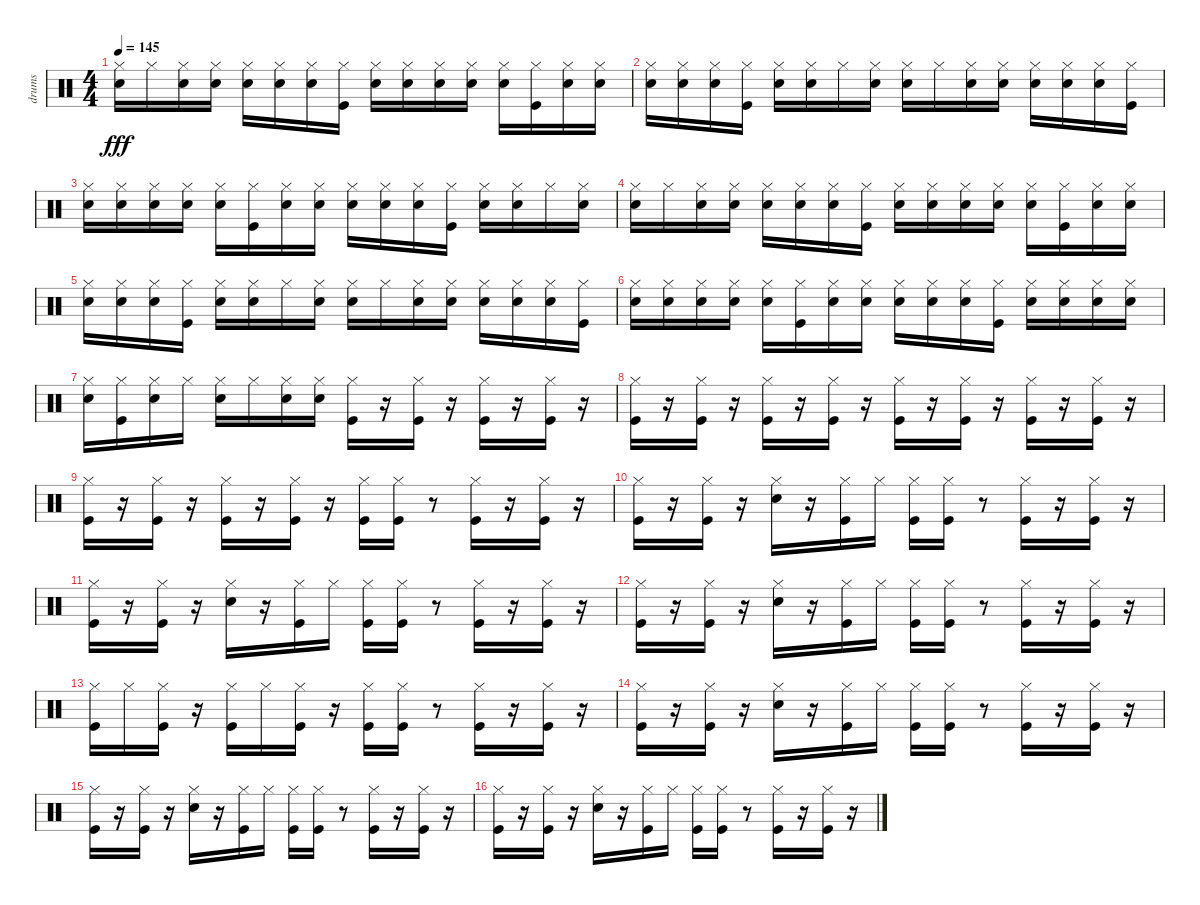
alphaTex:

\track ("drums" "drums") {instrument percussion}
\staff {score}
\articulation defaults
\ts (4 4)
\tempo 145
\clef neutral
\ks c
("Snare (hit) 2" "Hi-Hat (closed)").16{dy fff} "Hi-Hat (closed)".16 ("Snare (hit) 2" "Hi-Hat (closed)").16 ("Snare (hit) 2" "Hi-Hat (closed)").16 ("Snare (hit) 2" "Hi-Hat (closed)").16 ("Snare (hit) 2" "Hi-Hat (closed)").16 ("Snare (hit) 2" "Hi-Hat (closed)").16 ("Kick (hit)" "Hi-Hat (closed)").16 ("Snare (hit) 2" "Hi-Hat (closed)").16 ("Snare (hit) 2" "Hi-Hat (closed)").16 ("Snare (hit) 2" "Hi-Hat (closed)").16 ("Snare (hit) 2" "Hi-Hat (closed)").16 ("Snare (hit) 2" "Hi-Hat (closed)").16 ("Kick (hit)" "Hi-Hat (closed)").16 ("Snare (hit) 2" "Hi-Hat (closed)").16 ("Snare (hit) 2" "Hi-Hat (closed)").16 |
("Snare (hit) 2" "Hi-Hat (closed)").16 ("Snare (hit) 2" "Hi-Hat (closed)").16 ("Snare (hit) 2" "Hi-Hat (closed)").16 ("Kick (hit)" "Hi-Hat (closed)").16 ("Snare (hit) 2" "Hi-Hat (closed)").16 ("Snare (hit) 2" "Hi-Hat (closed)").16 "Hi-Hat (closed)".16 ("Snare (hit) 2" "Hi-Hat (closed)").16 ("Snare (hit) 2" "Hi-Hat (closed)").16 "Hi-Hat (closed)".16 ("Snare (hit) 2" "Hi-Hat (closed)").16 ("Snare (hit) 2" "Hi-Hat (closed)").16 ("Snare (hit) 2" "Hi-Hat (closed)").16 ("Snare (hit) 2" "Hi-Hat (closed)").16 ("Snare (hit) 2" "Hi-Hat (closed)").16 ("Kick (hit)" "Hi-Hat (closed)").16 |
("Snare (hit) 2" "Hi-Hat (closed)").16 ("Snare (hit) 2" "Hi-Hat (closed)").16 ("Snare (hit) 2" "Hi-Hat (closed)").16 ("Snare (hit) 2" "Hi-Hat (closed)").16 ("Snare (hit) 2" "Hi-Hat (closed)").16 ("Kick (hit)" "Hi-Hat (closed)").16 ("Snare (hit) 2" "Hi-Hat (closed)").16 ("Snare (hit) 2" "Hi-Hat (closed)").16 ("Snare (hit) 2" "Hi-Hat (closed)").16 ("Snare (hit) 2" "Hi-Hat (closed)").16 ("Snare (hit) 2" "Hi-Hat (closed)").16 ("Kick (hit)" "Hi-Hat (closed)").16 ("Snare (hit) 2" "Hi-Hat (closed)").16 ("Snare (hit) 2" "Hi-Hat (closed)").16 "Hi-Hat (closed)".16 ("Snare (hit) 2" "Hi-Hat (closed)").16 |
("Snare (hit) 2" "Hi-Hat (closed)").16 "Hi-Hat (closed)".16 ("Snare (hit) 2" "Hi-Hat (closed)").16 ("Snare (hit) 2" "Hi-Hat (closed)").16 ("Snare (hit) 2" "Hi-Hat (closed)").16 ("Snare (hit) 2" "Hi-Hat (closed)").16 ("Snare (hit) 2" "Hi-Hat (closed)").16 ("Kick (hit)" "Hi-Hat (closed)").16 ("Snare (hit) 2" "Hi-Hat (closed)").16 ("Snare (hit) 2" "Hi-Hat (closed)").16 ("Snare (hit) 2" "Hi-Hat (closed)").16 ("Snare (hit) 2" "Hi-Hat (closed)").16 ("Snare (hit) 2" "Hi-Hat (closed)").16 ("Kick (hit)" "Hi-Hat (closed)").16 ("Snare (hit) 2" "Hi-Hat (closed)").16 ("Snare (hit) 2" "Hi-Hat (closed)").16 |
("Snare (hit) 2" "Hi-Hat (closed)").16 ("Snare (hit) 2" "Hi-Hat (closed)").16 ("Snare (hit) 2" "Hi-Hat (closed)").16 ("Kick (hit)" "Hi-Hat (closed)").16 ("Snare (hit) 2" "Hi-Hat (closed)").16 ("Snare (hit) 2" "Hi-Hat (closed)").16 "Hi-Hat (closed)".16 ("Snare (hit) 2" "Hi-Hat (closed)").16 ("Snare (hit) 2" "Hi-Hat (closed)").16 "Hi-Hat (closed)".16 ("Snare (hit) 2" "Hi-Hat (closed)").16 ("Snare (hit) 2" "Hi-Hat (closed)").16 ("Snare (hit) 2" "Hi-Hat (closed)").16 ("Snare (hit) 2" "Hi-Hat (closed)").16 ("Snare (hit) 2" "Hi-Hat (closed)").16 ("Kick (hit)" "Hi-Hat (closed)").16 |
("Snare (hit) 2" "Hi-Hat (closed)").16 ("Snare (hit) 2" "Hi-Hat (closed)").16 ("Snare (hit) 2" "Hi-Hat (closed)").16 ("Snare (hit) 2" "Hi-Hat (closed)").16 ("Snare (hit) 2" "Hi-Hat (closed)").16 ("Kick (hit)" "Hi-Hat (closed)").16 ("Snare (hit) 2" "Hi-Hat (closed)").16 ("Snare (hit) 2" "Hi-Hat (closed)").16 ("Snare (hit) 2" "Hi-Hat (closed)").16 ("Snare (hit) 2" "Hi-Hat (closed)").16 ("Snare (hit) 2" "Hi-Hat (closed)").16 ("Kick (hit)" "Hi-Hat (closed)").16 ("Snare (hit) 2" "Hi-Hat (closed)").16 ("Snare (hit) 2" "Hi-Hat (closed)").16 ("Snare (hit) 2" "Hi-Hat (closed)").16 ("Snare (hit) 2" "Hi-Hat (closed)").16 |
("Snare (hit) 2" "Hi-Hat (closed)").16 ("Kick (hit)" "Hi-Hat (closed)").16 ("Snare (hit) 2" "Hi-Hat (closed)").16 "Hi-Hat (closed)".16 ("Snare (hit) 2" "Hi-Hat (closed)").16 "Hi-Hat (closed)".16 ("Snare (hit) 2" "Hi-Hat (closed)").16 ("Snare (hit) 2" "Hi-Hat (closed)").16 ("Kick (hit)" "Hi-Hat (closed)").16 r.16 ("Kick (hit)" "Hi-Hat (closed)").16 r.16 ("Kick (hit)" "Hi-Hat (closed)").16 r.16 ("Kick (hit)" "Hi-Hat (closed)").16 r.16 |
("Kick (hit)" "Hi-Hat (closed)").16 r.16 ("Kick (hit)" "Hi-Hat (closed)").16 r.16 ("Kick (hit)" "Hi-Hat (closed)").16 r.16 ("Kick (hit)" "Hi-Hat (closed)").16 r.16 ("Kick (hit)" "Hi-Hat (closed)").16 r.16 ("Kick (hit)" "Hi-Hat (closed)").16 r.16 ("Kick (hit)" "Hi-Hat (closed)").16 r.16 ("Kick (hit)" "Hi-Hat (closed)").16 r.16 |
("Kick (hit)" "Hi-Hat (closed)").16 r.16 ("Kick (hit)" "Hi-Hat (closed)").16 r.16 ("Kick (hit)" "Hi-Hat (closed)").16 r.16 ("Kick (hit)" "Hi-Hat (closed)").16 r.16 ("Kick (hit)" "Hi-Hat (closed)").16 ("Kick (hit)" "Hi-Hat (closed)").16 r.8 ("Kick (hit)" "Hi-Hat (closed)").16 r.16 ("Kick (hit)" "Hi-Hat (closed)").16 r.16 |
("Kick (hit)" "Hi-Hat (closed)").16 r.16 ("Kick (hit)" "Hi-Hat (closed)").16 r.16 ("Snare (hit) 2" "Hi-Hat (closed)").16 r.16 ("Kick (hit)" "Hi-Hat (closed)").16 "Hi-Hat (closed)".16 ("Kick (hit)" "Hi-Hat (closed)").16 ("Kick (hit)" "Hi-Hat (closed)").16 r.8 ("Kick (hit)" "Hi-Hat (closed)").16 r.16 ("Kick (hit)" "Hi-Hat (closed)").16 r.16 |
("Kick (hit)" "Hi-Hat (closed)").16 r.16 ("Kick (hit)" "Hi-Hat (closed)").16 r.16 ("Snare (hit) 2" "Hi-Hat (closed)").16 r.16 ("Kick (hit)" "Hi-Hat (closed)").16 "Hi-Hat (closed)".16 ("Kick (hit)" "Hi-Hat (closed)").16 ("Kick (hit)" "Hi-Hat (closed)").16 r.8 ("Kick (hit)" "Hi-Hat (closed)").16 r.16 ("Kick (hit)" "Hi-Hat (closed)").16 r.16 |
("Kick (hit)" "Hi-Hat (closed)").16 r.16 ("Kick (hit)" "Hi-Hat (closed)").16 r.16 ("Snare (hit) 2" "Hi-Hat (closed)").16 r.16 ("Kick (hit)" "Hi-Hat (closed)").16 "Hi-Hat (closed)".16 ("Kick (hit)" "Hi-Hat (closed)").16 ("Kick (hit)" "Hi-Hat (closed)").16 r.8 ("Kick (hit)" "Hi-Hat (closed)").16 r.16 ("Kick (hit)" "Hi-Hat (closed)").16 r.16 |
("Kick (hit)" "Hi-Hat (closed)").16 "Hi-Hat (closed)".16 ("Kick (hit)" "Hi-Hat (closed)").16 r.16 ("Kick (hit)" "Hi-Hat (closed)").16 "Hi-Hat (closed)".16 ("Kick (hit)" "Hi-Hat (closed)").16 r.16 ("Kick (hit)" "Hi-Hat (closed)").16 ("Kick (hit)" "Hi-Hat (closed)").16 r.8 ("Kick (hit)" "Hi-Hat (closed)").16 r.16 ("Kick (hit)" "Hi-Hat (closed)").16 r.16 |
("Kick (hit)" "Hi-Hat (closed)").16 r.16 ("Kick (hit)" "Hi-Hat (closed)").16 r.16 ("Snare (hit) 2" "Hi-Hat (closed)").16 r.16 ("Kick (hit)" "Hi-Hat (closed)").16 "Hi-Hat (closed)".16 ("Kick (hit)" "Hi-Hat (closed)").16 ("Kick (hit)" "Hi-Hat (closed)").16 r.8 ("Kick (hit)" "Hi-Hat (closed)").16 r.16 ("Kick (hit)" "Hi-Hat (closed)").16 r.16 |
("Kick (hit)" "Hi-Hat (closed)").16 r.16 ("Kick (hit)" "Hi-Hat (closed)").16 r.16 ("Snare (hit) 2" "Hi-Hat (closed)").16 r.16 ("Kick (hit)" "Hi-Hat (closed)").16 "Hi-Hat (closed)".16 ("Kick (hit)" "Hi-Hat (closed)").16 ("Kick (hit)" "Hi-Hat (closed)").16 r.8 ("Kick (hit)" "Hi-Hat (closed)").16 r.16 ("Kick (hit)" "Hi-Hat (closed)").16 r.16 |
("Kick (hit)" "Hi-Hat (closed)").16 r.16 ("Kick (hit)" "Hi-Hat (closed)").16 r.16 ("Snare (hit) 2" "Hi-Hat (closed)").16 r.16 ("Kick (hit)" "Hi-Hat (closed)").16 "Hi-Hat (closed)".16 ("Kick (hit)" "Hi-Hat (closed)").16 ("Kick (hit)" "Hi-Hat (closed)").16 r.8 ("Kick (hit)" "Hi-Hat (closed)").16 r.16 ("Kick (hit)" "Hi-Hat (closed)").16 r.16
